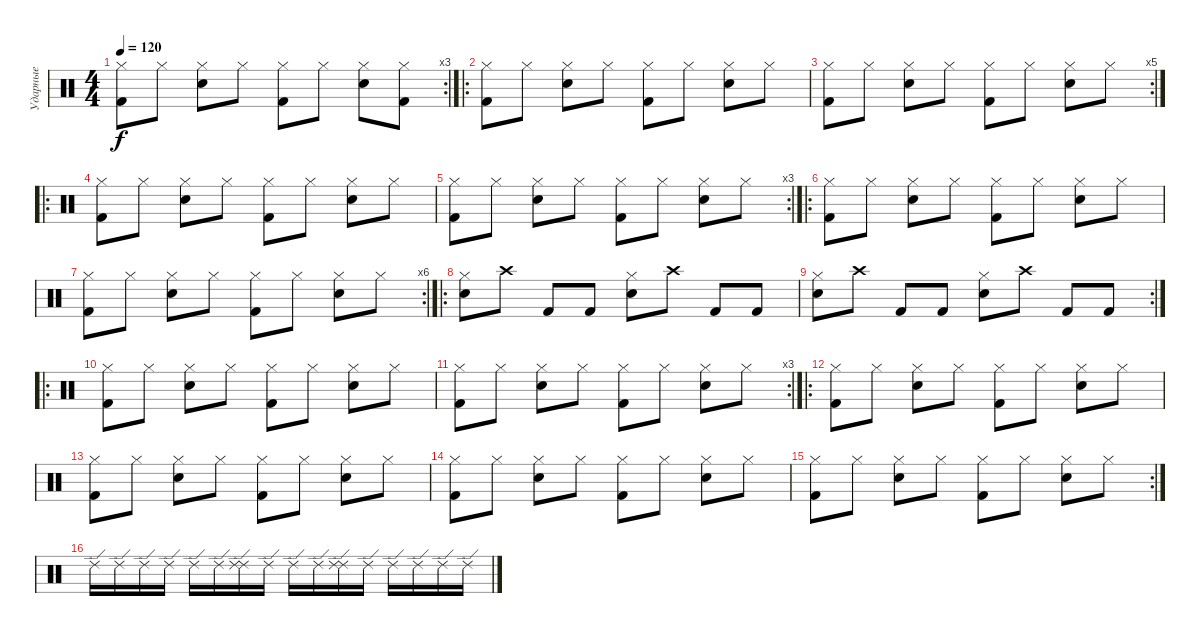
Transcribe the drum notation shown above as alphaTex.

\track ("Ударные" "Ударные") {instrument percussion}
\staff {score}
\articulation defaults
\rc 3
\ts (4 4)
\tempo 120
\clef neutral
\ks c
("Hi-Hat (closed)" "Kick (hit) 2").8{dy f} "Hi-Hat (closed)".8 ("Hi-Hat (closed)" "Snare (hit) 2").8 "Hi-Hat (closed)".8 ("Hi-Hat (closed)" "Kick (hit) 2").8 "Hi-Hat (closed)".8 ("Hi-Hat (closed)" "Snare (hit) 2").8 ("Hi-Hat (closed)" "Kick (hit) 2").8 |
\ro
("Hi-Hat (closed)" "Kick (hit) 2").8 "Hi-Hat (closed)".8 ("Hi-Hat (closed)" "Snare (hit) 2").8 "Hi-Hat (closed)".8 ("Hi-Hat (closed)" "Kick (hit) 2").8 "Hi-Hat (closed)".8 ("Hi-Hat (closed)" "Snare (hit) 2").8 "Hi-Hat (closed)".8 |
\rc 5
("Hi-Hat (closed)" "Kick (hit) 2").8 "Hi-Hat (closed)".8 ("Hi-Hat (closed)" "Electric Snare (hit)").8 "Hi-Hat (closed)".8 ("Hi-Hat (closed)" "Kick (hit) 2").8 "Hi-Hat (closed)".8 ("Hi-Hat (closed)" "Electric Snare (hit)").8 "Hi-Hat (closed)".8 |
\ro
("Hi-Hat (closed)" "Kick (hit) 2").8 "Hi-Hat (closed)".8 ("Hi-Hat (closed)" "Electric Snare (hit)").8 "Hi-Hat (closed)".8 ("Hi-Hat (closed)" "Kick (hit) 2").8 "Hi-Hat (closed)".8 ("Hi-Hat (closed)" "Electric Snare (hit)").8 "Hi-Hat (closed)".8 |
\rc 3
("Hi-Hat (closed)" "Kick (hit) 2").8 "Hi-Hat (closed)".8 ("Hi-Hat (closed)" "Electric Snare (hit)").8 "Hi-Hat (closed)".8 ("Hi-Hat (closed)" "Kick (hit) 2").8 "Hi-Hat (closed)".8 ("Hi-Hat (closed)" "Electric Snare (hit)").8 "Hi-Hat (closed)".8 |
\ro
("Hi-Hat (closed)" "Kick (hit) 2").8 "Hi-Hat (closed)".8 ("Hi-Hat (closed)" "Electric Snare (hit)").8 "Hi-Hat (closed)".8 ("Hi-Hat (closed)" "Kick (hit) 2").8 "Hi-Hat (closed)".8 ("Hi-Hat (closed)" "Electric Snare (hit)").8 "Hi-Hat (closed)".8 |
\rc 6
("Hi-Hat (closed)" "Kick (hit) 2").8 "Hi-Hat (closed)".8 ("Hi-Hat (closed)" "Electric Snare (hit)").8 "Hi-Hat (closed)".8 ("Hi-Hat (closed)" "Kick (hit) 2").8 "Hi-Hat (closed)".8 ("Hi-Hat (closed)" "Electric Snare (hit)").8 "Hi-Hat (closed)".8 |
\ro
("Hi-Hat (closed)" "Snare (hit) 2").8 "Crash high (hit)".8 "Kick (hit) 2".8 "Kick (hit) 2".8 ("Snare (hit) 2" "Hi-Hat (closed)").8 "Crash high (hit)".8 "Kick (hit) 2".8 "Kick (hit) 2".8 |
\rc 2
("Hi-Hat (closed)" "Snare (hit) 2").8 "Crash high (hit)".8 "Kick (hit) 2".8 "Kick (hit) 2".8 ("Snare (hit) 2" "Hi-Hat (closed)").8 "Crash high (hit)".8 "Kick (hit) 2".8 "Kick (hit) 2".8 |
\ro
("Hi-Hat (closed)" "Kick (hit) 2").8 "Hi-Hat (closed)".8 ("Hi-Hat (closed)" "Electric Snare (hit)").8 "Hi-Hat (closed)".8 ("Hi-Hat (closed)" "Kick (hit) 2").8 "Hi-Hat (closed)".8 ("Hi-Hat (closed)" "Electric Snare (hit)").8 "Hi-Hat (closed)".8 |
\rc 3
("Hi-Hat (closed)" "Kick (hit) 2").8 "Hi-Hat (closed)".8 ("Hi-Hat (closed)" "Electric Snare (hit)").8 "Hi-Hat (closed)".8 ("Hi-Hat (closed)" "Kick (hit) 2").8 "Hi-Hat (closed)".8 ("Hi-Hat (closed)" "Electric Snare (hit)").8 "Hi-Hat (closed)".8 |
\ro
("Hi-Hat (closed)" "Kick (hit) 2").8 "Hi-Hat (closed)".8 ("Hi-Hat (closed)" "Electric Snare (hit)").8 "Hi-Hat (closed)".8 ("Hi-Hat (closed)" "Kick (hit) 2").8 "Hi-Hat (closed)".8 ("Hi-Hat (closed)" "Electric Snare (hit)").8 "Hi-Hat (closed)".8 |
("Hi-Hat (closed)" "Kick (hit) 2").8 "Hi-Hat (closed)".8 ("Hi-Hat (closed)" "Electric Snare (hit)").8 "Hi-Hat (closed)".8 ("Hi-Hat (closed)" "Kick (hit) 2").8 "Hi-Hat (closed)".8 ("Hi-Hat (closed)" "Electric Snare (hit)").8 "Hi-Hat (closed)".8 |
("Hi-Hat (closed)" "Kick (hit) 2").8 "Hi-Hat (closed)".8 ("Hi-Hat (closed)" "Electric Snare (hit)").8 "Hi-Hat (closed)".8 ("Hi-Hat (closed)" "Kick (hit) 2").8 "Hi-Hat (closed)".8 ("Hi-Hat (closed)" "Electric Snare (hit)").8 "Hi-Hat (closed)".8 |
\rc 2
("Hi-Hat (closed)" "Kick (hit) 2").8 "Hi-Hat (closed)".8 ("Hi-Hat (closed)" "Electric Snare (hit)").8 "Hi-Hat (closed)".8 ("Hi-Hat (closed)" "Kick (hit) 2").8 "Hi-Hat (closed)".8 ("Hi-Hat (closed)" "Electric Snare (hit)").8 "Hi-Hat (closed)".8 |
"Ride (edge) 2".16 "Ride (edge) 2".16 "Ride (edge) 2".16 "Ride (edge) 2".16 "Ride (edge) 2".16 "Ride (edge) 2".16 ("Ride (edge) 2" "Ride (edge) 2").16 "Ride (edge) 2".16 "Ride (edge) 2".16 "Ride (edge) 2".16 ("Ride (edge) 2" "Ride (edge) 2").16 "Ride (edge) 2".16 "Ride (edge) 2".16 "Ride (edge) 2".16 "Ride (edge) 2".16 "Ride (edge) 2".16
